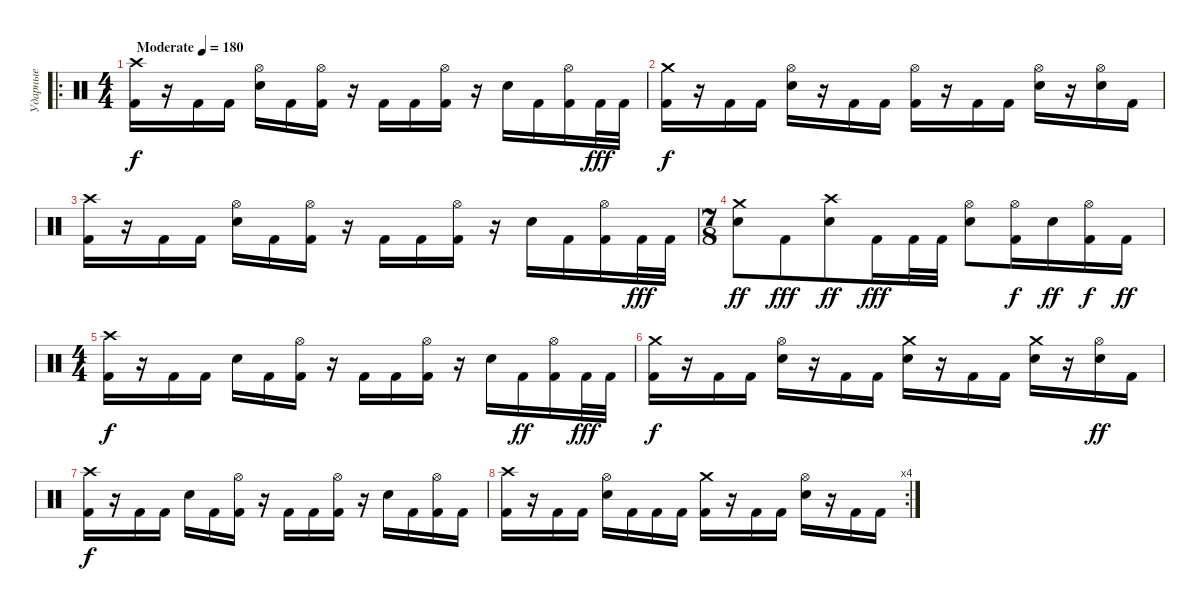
\track ("Ударные" "Ударные") {instrument percussion}
\staff {score}
\articulation defaults
\ro
\ts (4 4)
\tempo (180 "Moderate")
\clef neutral
\ks c
("Crash high (hit)" "Kick (hit) 2").16{dy f} r.16 "Kick (hit) 2".16 "Kick (hit) 2".16 ("Hi-Hat (open)" "Electric Snare (hit)").16 "Kick (hit) 2".16 ("Hi-Hat (open)" "Kick (hit) 2").16 r.16 "Kick (hit) 2".16 "Kick (hit) 2".16 ("Hi-Hat (open)" "Kick (hit) 2").16 r.16 "Electric Snare (hit)".16 "Kick (hit) 2".16 ("Hi-Hat (open)" "Kick (hit) 2").16 "Kick (hit) 2".32{dy fff} "Kick (hit) 2".32 |
("Crash medium (hit)" "Kick (hit) 2").16{dy f} r.16 "Kick (hit) 2".16 "Kick (hit) 2".16 ("Hi-Hat (open)" "Electric Snare (hit)").16 r.16 "Kick (hit) 2".16 "Kick (hit) 2".16 ("Hi-Hat (open)" "Kick (hit) 2").16 r.16 "Kick (hit) 2".16 "Kick (hit) 2".16 ("Hi-Hat (open)" "Electric Snare (hit)").16 r.16 ("Hi-Hat (open)" "Electric Snare (hit)").16 "Kick (hit) 2".16 |
("Crash high (hit)" "Kick (hit) 2").16 r.16 "Kick (hit) 2".16 "Kick (hit) 2".16 ("Hi-Hat (open)" "Electric Snare (hit)").16 "Kick (hit) 2".16 ("Hi-Hat (open)" "Kick (hit) 2").16 r.16 "Kick (hit) 2".16 "Kick (hit) 2".16 ("Hi-Hat (open)" "Kick (hit) 2").16 r.16 "Electric Snare (hit)".16 "Kick (hit) 2".16 ("Hi-Hat (open)" "Kick (hit) 2").16 "Kick (hit) 2".32{dy fff} "Kick (hit) 2".32 |
\ts (7 8)
("Crash medium (hit)" "Electric Snare (hit)").8{dy ff} "Kick (hit) 2".8{dy fff} ("Crash high (hit)" "Electric Snare (hit)").8{dy ff} "Kick (hit) 2".16{dy fff} "Kick (hit) 2".32 "Kick (hit) 2".32 ("Hi-Hat (open)" "Electric Snare (hit)").8 ("Hi-Hat (open)" "Kick (hit) 2").16{dy f} "Electric Snare (hit)".16{dy ff} ("Hi-Hat (open)" "Kick (hit) 2").16{dy f} "Kick (hit) 2".16{dy ff} |
\ts (4 4)
("Crash high (hit)" "Kick (hit) 2").16{dy f} r.16 "Kick (hit) 2".16 "Kick (hit) 2".16 "Electric Snare (hit)".16 "Kick (hit) 2".16 ("Hi-Hat (open)" "Kick (hit) 2").16 r.16 "Kick (hit) 2".16 "Kick (hit) 2".16 ("Hi-Hat (open)" "Kick (hit) 2").16 r.16 "Electric Snare (hit)".16 "Kick (hit) 2".16{dy ff} ("Hi-Hat (open)" "Kick (hit) 2").16 "Kick (hit) 2".32{dy fff} "Kick (hit) 2".32 |
("Crash medium (hit)" "Kick (hit) 2").16{dy f} r.16 "Kick (hit) 2".16 "Kick (hit) 2".16 ("Hi-Hat (open)" "Electric Snare (hit)").16 r.16 "Kick (hit) 2".16 "Kick (hit) 2".16 ("Crash medium (hit)" "Electric Snare (hit)").16 r.16 "Kick (hit) 2".16 "Kick (hit) 2".16 ("Crash medium (hit)" "Electric Snare (hit)").16 r.16 ("Hi-Hat (open)" "Electric Snare (hit)").16{dy ff} "Kick (hit) 2".16 |
("Crash high (hit)" "Kick (hit) 2").16{dy f} r.16 "Kick (hit) 2".16 "Kick (hit) 2".16 "Electric Snare (hit)".16 "Kick (hit) 2".16 ("Hi-Hat (open)" "Kick (hit) 2").16 r.16 "Kick (hit) 2".16 "Kick (hit) 2".16 ("Hi-Hat (open)" "Kick (hit) 2").16 r.16 "Electric Snare (hit)".16 "Kick (hit) 2".16 ("Hi-Hat (open)" "Kick (hit) 2").16 "Kick (hit) 2".16 |
\rc 4
("Crash high (hit)" "Kick (hit) 2").16 r.16 "Kick (hit) 2".16 "Kick (hit) 2".16 ("Hi-Hat (open)" "Electric Snare (hit)").16 "Kick (hit) 2".16 "Kick (hit) 2".16 "Kick (hit) 2".16 ("Crash medium (hit)" "Kick (hit) 2").16 r.16 "Kick (hit) 2".16 "Kick (hit) 2".16 ("Hi-Hat (open)" "Electric Snare (hit)").16 r.16 "Kick (hit) 2".16 "Kick (hit) 2".16
